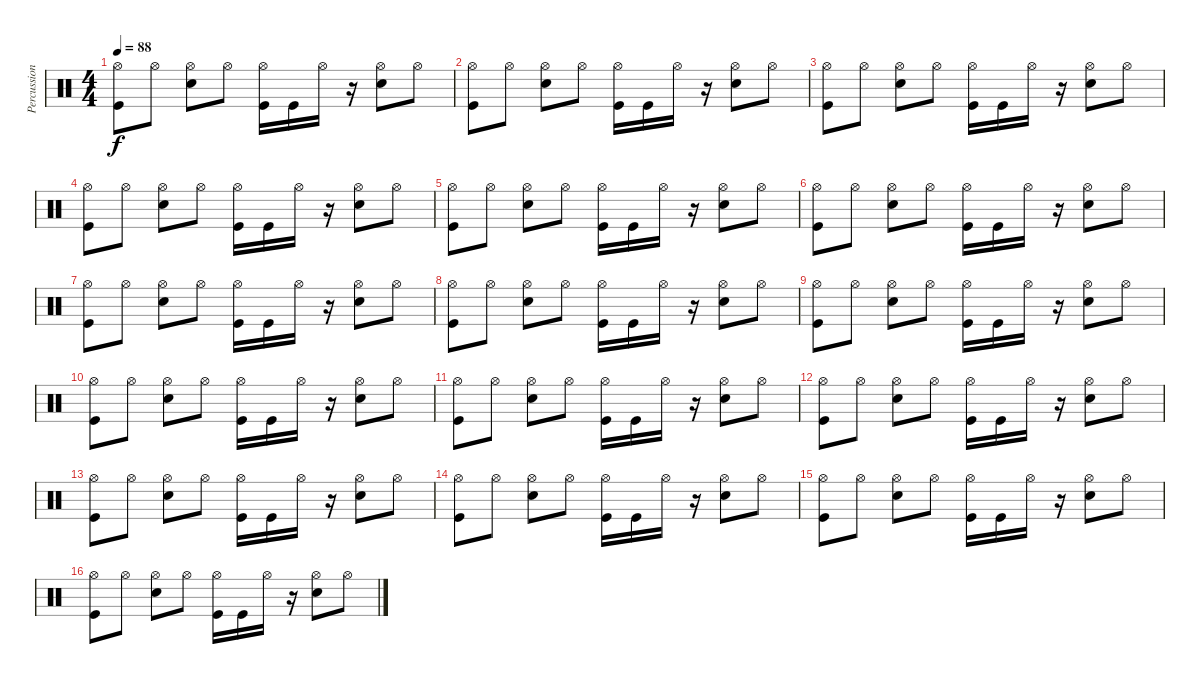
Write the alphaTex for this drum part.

\track ("Percussion" "Percussion") {instrument percussion}
\staff {score}
\articulation defaults
\ts (4 4)
\tempo 88
\clef neutral
\ks c
("Hi-Hat (open)" "Kick (hit)").8{dy f} "Hi-Hat (open)".8 ("Hi-Hat (open)" "Snare (hit) 2").8 "Hi-Hat (open)".8 ("Hi-Hat (open)" "Kick (hit)").16 "Kick (hit)".16 "Hi-Hat (open)".16 r.16 ("Hi-Hat (open)" "Snare (hit) 2").8 "Hi-Hat (open)".8 |
("Hi-Hat (open)" "Kick (hit)").8 "Hi-Hat (open)".8 ("Hi-Hat (open)" "Snare (hit) 2").8 "Hi-Hat (open)".8 ("Hi-Hat (open)" "Kick (hit)").16 "Kick (hit)".16 "Hi-Hat (open)".16 r.16 ("Hi-Hat (open)" "Snare (hit) 2").8 "Hi-Hat (open)".8 |
("Hi-Hat (open)" "Kick (hit)").8 "Hi-Hat (open)".8 ("Hi-Hat (open)" "Snare (hit) 2").8 "Hi-Hat (open)".8 ("Hi-Hat (open)" "Kick (hit)").16 "Kick (hit)".16 "Hi-Hat (open)".16 r.16 ("Hi-Hat (open)" "Snare (hit) 2").8 "Hi-Hat (open)".8 |
("Hi-Hat (open)" "Kick (hit)").8 "Hi-Hat (open)".8 ("Hi-Hat (open)" "Snare (hit) 2").8 "Hi-Hat (open)".8 ("Hi-Hat (open)" "Kick (hit)").16 "Kick (hit)".16 "Hi-Hat (open)".16 r.16 ("Hi-Hat (open)" "Snare (hit) 2").8 "Hi-Hat (open)".8 |
("Hi-Hat (open)" "Kick (hit)").8 "Hi-Hat (open)".8 ("Hi-Hat (open)" "Snare (hit) 2").8 "Hi-Hat (open)".8 ("Hi-Hat (open)" "Kick (hit)").16 "Kick (hit)".16 "Hi-Hat (open)".16 r.16 ("Hi-Hat (open)" "Snare (hit) 2").8 "Hi-Hat (open)".8 |
("Hi-Hat (open)" "Kick (hit)").8 "Hi-Hat (open)".8 ("Hi-Hat (open)" "Snare (hit) 2").8 "Hi-Hat (open)".8 ("Hi-Hat (open)" "Kick (hit)").16 "Kick (hit)".16 "Hi-Hat (open)".16 r.16 ("Hi-Hat (open)" "Snare (hit) 2").8 "Hi-Hat (open)".8 |
("Hi-Hat (open)" "Kick (hit)").8 "Hi-Hat (open)".8 ("Hi-Hat (open)" "Snare (hit) 2").8 "Hi-Hat (open)".8 ("Hi-Hat (open)" "Kick (hit)").16 "Kick (hit)".16 "Hi-Hat (open)".16 r.16 ("Hi-Hat (open)" "Snare (hit) 2").8 "Hi-Hat (open)".8 |
("Hi-Hat (open)" "Kick (hit)").8 "Hi-Hat (open)".8 ("Hi-Hat (open)" "Snare (hit) 2").8 "Hi-Hat (open)".8 ("Hi-Hat (open)" "Kick (hit)").16 "Kick (hit)".16 "Hi-Hat (open)".16 r.16 ("Hi-Hat (open)" "Snare (hit) 2").8 "Hi-Hat (open)".8 |
("Hi-Hat (open)" "Kick (hit)").8 "Hi-Hat (open)".8 ("Hi-Hat (open)" "Snare (hit) 2").8 "Hi-Hat (open)".8 ("Hi-Hat (open)" "Kick (hit)").16 "Kick (hit)".16 "Hi-Hat (open)".16 r.16 ("Hi-Hat (open)" "Snare (hit) 2").8 "Hi-Hat (open)".8 |
("Hi-Hat (open)" "Kick (hit)").8 "Hi-Hat (open)".8 ("Hi-Hat (open)" "Snare (hit) 2").8 "Hi-Hat (open)".8 ("Hi-Hat (open)" "Kick (hit)").16 "Kick (hit)".16 "Hi-Hat (open)".16 r.16 ("Hi-Hat (open)" "Snare (hit) 2").8 "Hi-Hat (open)".8 |
("Hi-Hat (open)" "Kick (hit)").8 "Hi-Hat (open)".8 ("Hi-Hat (open)" "Snare (hit) 2").8 "Hi-Hat (open)".8 ("Hi-Hat (open)" "Kick (hit)").16 "Kick (hit)".16 "Hi-Hat (open)".16 r.16 ("Hi-Hat (open)" "Snare (hit) 2").8 "Hi-Hat (open)".8 |
("Hi-Hat (open)" "Kick (hit)").8 "Hi-Hat (open)".8 ("Hi-Hat (open)" "Snare (hit) 2").8 "Hi-Hat (open)".8 ("Hi-Hat (open)" "Kick (hit)").16 "Kick (hit)".16 "Hi-Hat (open)".16 r.16 ("Hi-Hat (open)" "Snare (hit) 2").8 "Hi-Hat (open)".8 |
("Hi-Hat (open)" "Kick (hit)").8 "Hi-Hat (open)".8 ("Hi-Hat (open)" "Snare (hit) 2").8 "Hi-Hat (open)".8 ("Hi-Hat (open)" "Kick (hit)").16 "Kick (hit)".16 "Hi-Hat (open)".16 r.16 ("Hi-Hat (open)" "Snare (hit) 2").8 "Hi-Hat (open)".8 |
("Hi-Hat (open)" "Kick (hit)").8 "Hi-Hat (open)".8 ("Hi-Hat (open)" "Snare (hit) 2").8 "Hi-Hat (open)".8 ("Hi-Hat (open)" "Kick (hit)").16 "Kick (hit)".16 "Hi-Hat (open)".16 r.16 ("Hi-Hat (open)" "Snare (hit) 2").8 "Hi-Hat (open)".8 |
("Hi-Hat (open)" "Kick (hit)").8 "Hi-Hat (open)".8 ("Hi-Hat (open)" "Snare (hit) 2").8 "Hi-Hat (open)".8 ("Hi-Hat (open)" "Kick (hit)").16 "Kick (hit)".16 "Hi-Hat (open)".16 r.16 ("Hi-Hat (open)" "Snare (hit) 2").8 "Hi-Hat (open)".8 |
("Hi-Hat (open)" "Kick (hit)").8 "Hi-Hat (open)".8 ("Hi-Hat (open)" "Snare (hit) 2").8 "Hi-Hat (open)".8 ("Hi-Hat (open)" "Kick (hit)").16 "Kick (hit)".16 "Hi-Hat (open)".16 r.16 ("Hi-Hat (open)" "Snare (hit) 2").8 "Hi-Hat (open)".8
